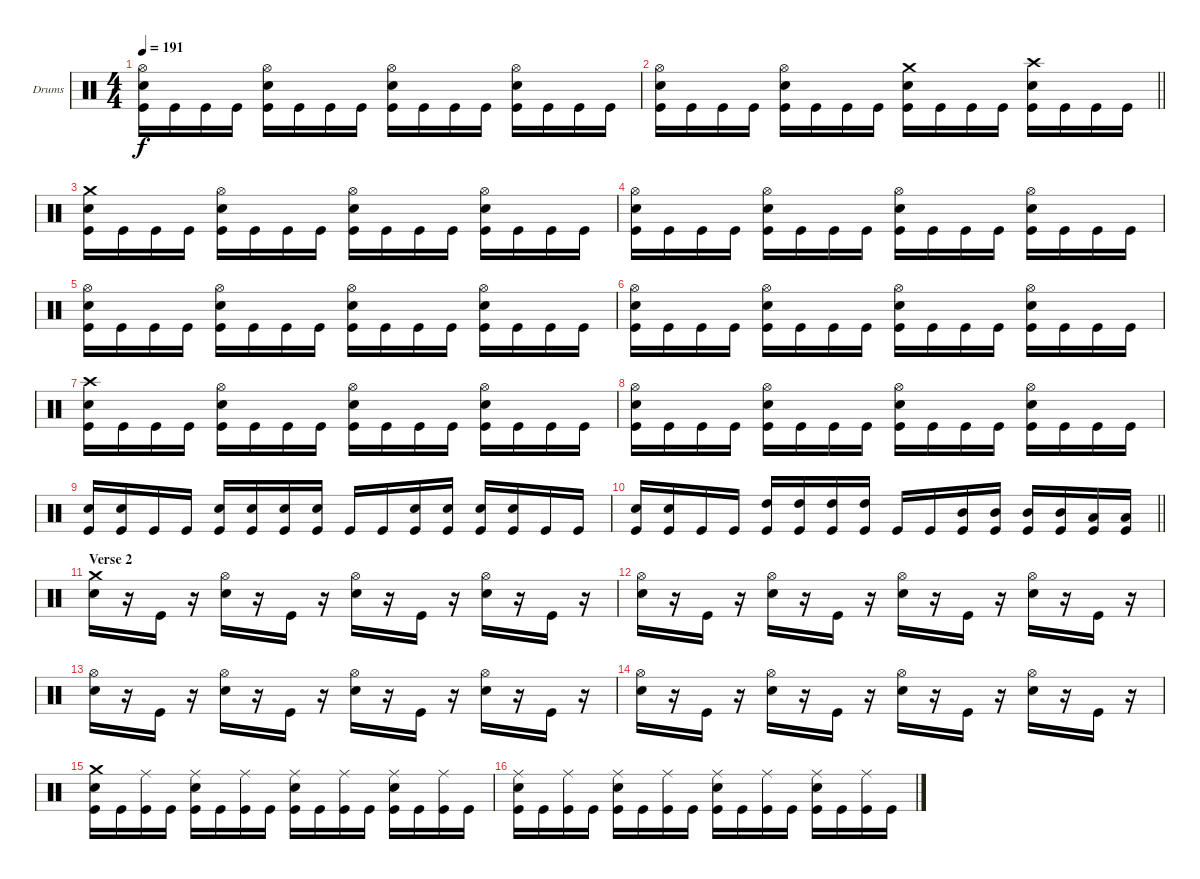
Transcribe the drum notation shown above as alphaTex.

\bracketExtendMode groupsimilarinstruments
\firstSystemTrackNameOrientation horizontal
\otherSystemsTrackNameOrientation horizontal
\track ("Drumkit" "Drums") {instrument percussion}
\staff {score}
\articulation defaults
\ts (4 4)
\tempo 191
\clef neutral
\ks c
("Hi-Hat (open)" "Snare (hit) 2" "Kick (hit)").16{dy f} "Kick (hit)".16 "Kick (hit)".16 "Kick (hit)".16 ("Hi-Hat (open)" "Snare (hit) 2" "Kick (hit)").16 "Kick (hit)".16 "Kick (hit)".16 "Kick (hit)".16 ("Hi-Hat (open)" "Snare (hit) 2" "Kick (hit)").16 "Kick (hit)".16 "Kick (hit)".16 "Kick (hit)".16 ("Hi-Hat (open)" "Snare (hit) 2" "Kick (hit)").16 "Kick (hit)".16 "Kick (hit)".16 "Kick (hit)".16 |
\barLineRight lightlight
("Hi-Hat (open)" "Snare (hit) 2" "Kick (hit)").16 "Kick (hit)".16 "Kick (hit)".16 "Kick (hit)".16 ("Hi-Hat (open)" "Snare (hit) 2" "Kick (hit)").16 "Kick (hit)".16 "Kick (hit)".16 "Kick (hit)".16 ("Crash medium (hit)" "Snare (hit) 2" "Kick (hit)").16 "Kick (hit)".16 "Kick (hit)".16 "Kick (hit)".16 ("Crash high (hit)" "Snare (hit) 2" "Kick (hit)").16 "Kick (hit)".16 "Kick (hit)".16 "Kick (hit)".16 |
\section ("" "")
("Crash medium (hit)" "Snare (hit) 2" "Kick (hit)").16 "Kick (hit)".16 "Kick (hit)".16 "Kick (hit)".16 ("Hi-Hat (open)" "Snare (hit) 2" "Kick (hit)").16 "Kick (hit)".16 "Kick (hit)".16 "Kick (hit)".16 ("Hi-Hat (open)" "Snare (hit) 2" "Kick (hit)").16 "Kick (hit)".16 "Kick (hit)".16 "Kick (hit)".16 ("Hi-Hat (open)" "Snare (hit) 2" "Kick (hit)").16 "Kick (hit)".16 "Kick (hit)".16 "Kick (hit)".16 |
("Hi-Hat (open)" "Snare (hit) 2" "Kick (hit)").16 "Kick (hit)".16 "Kick (hit)".16 "Kick (hit)".16 ("Hi-Hat (open)" "Snare (hit) 2" "Kick (hit)").16 "Kick (hit)".16 "Kick (hit)".16 "Kick (hit)".16 ("Hi-Hat (open)" "Snare (hit) 2" "Kick (hit)").16 "Kick (hit)".16 "Kick (hit)".16 "Kick (hit)".16 ("Hi-Hat (open)" "Snare (hit) 2" "Kick (hit)").16 "Kick (hit)".16 "Kick (hit)".16 "Kick (hit)".16 |
("Hi-Hat (open)" "Snare (hit) 2" "Kick (hit)").16 "Kick (hit)".16 "Kick (hit)".16 "Kick (hit)".16 ("Hi-Hat (open)" "Snare (hit) 2" "Kick (hit)").16 "Kick (hit)".16 "Kick (hit)".16 "Kick (hit)".16 ("Hi-Hat (open)" "Snare (hit) 2" "Kick (hit)").16 "Kick (hit)".16 "Kick (hit)".16 "Kick (hit)".16 ("Hi-Hat (open)" "Snare (hit) 2" "Kick (hit)").16 "Kick (hit)".16 "Kick (hit)".16 "Kick (hit)".16 |
("Hi-Hat (open)" "Snare (hit) 2" "Kick (hit)").16 "Kick (hit)".16 "Kick (hit)".16 "Kick (hit)".16 ("Hi-Hat (open)" "Snare (hit) 2" "Kick (hit)").16 "Kick (hit)".16 "Kick (hit)".16 "Kick (hit)".16 ("Hi-Hat (open)" "Snare (hit) 2" "Kick (hit)").16 "Kick (hit)".16 "Kick (hit)".16 "Kick (hit)".16 ("Hi-Hat (open)" "Snare (hit) 2" "Kick (hit)").16 "Kick (hit)".16 "Kick (hit)".16 "Kick (hit)".16 |
("Crash high (hit)" "Snare (hit) 2" "Kick (hit)").16 "Kick (hit)".16 "Kick (hit)".16 "Kick (hit)".16 ("Hi-Hat (open)" "Snare (hit) 2" "Kick (hit)").16 "Kick (hit)".16 "Kick (hit)".16 "Kick (hit)".16 ("Hi-Hat (open)" "Snare (hit) 2" "Kick (hit)").16 "Kick (hit)".16 "Kick (hit)".16 "Kick (hit)".16 ("Hi-Hat (open)" "Snare (hit) 2" "Kick (hit)").16 "Kick (hit)".16 "Kick (hit)".16 "Kick (hit)".16 |
("Hi-Hat (open)" "Snare (hit) 2" "Kick (hit)").16 "Kick (hit)".16 "Kick (hit)".16 "Kick (hit)".16 ("Hi-Hat (open)" "Snare (hit) 2" "Kick (hit)").16 "Kick (hit)".16 "Kick (hit)".16 "Kick (hit)".16 ("Hi-Hat (open)" "Snare (hit) 2" "Kick (hit)").16 "Kick (hit)".16 "Kick (hit)".16 "Kick (hit)".16 ("Hi-Hat (open)" "Snare (hit) 2" "Kick (hit)").16 "Kick (hit)".16 "Kick (hit)".16 "Kick (hit)".16 |
("Snare (hit) 2" "Kick (hit)").16 ("Snare (hit) 2" "Kick (hit)").16 "Kick (hit)".16 "Kick (hit)".16 ("Snare (hit) 2" "Kick (hit)").16 ("Snare (hit) 2" "Kick (hit)").16 ("Snare (hit) 2" "Kick (hit)").16 ("Snare (hit) 2" "Kick (hit)").16 "Kick (hit)".16 "Kick (hit)".16 ("Snare (hit) 2" "Kick (hit)").16 ("Snare (hit) 2" "Kick (hit)").16 ("Snare (hit) 2" "Kick (hit)").16 ("Snare (hit) 2" "Kick (hit)").16 "Kick (hit)".16 "Kick (hit)".16 |
\barLineRight lightlight
("Snare (hit) 2" "Kick (hit)").16 ("Snare (hit) 2" "Kick (hit)").16 "Kick (hit)".16 "Kick (hit)".16 ("High Tom (hit)" "Kick (hit)").16 ("High Tom (hit)" "Kick (hit)").16 ("High Tom (hit)" "Kick (hit)").16 ("High Tom (hit)" "Kick (hit)").16 "Kick (hit)".16 "Kick (hit)".16 ("Mid Tom (hit)" "Kick (hit)").16 ("Mid Tom (hit)" "Kick (hit)").16 ("Mid Tom (hit)" "Kick (hit)").16 ("Mid Tom (hit)" "Kick (hit)").16 ("Low Tom (hit)" "Kick (hit)").16 ("Low Tom (hit)" "Kick (hit)").16 |
\section ("" "Verse 2")
("Crash medium (hit)" "Snare (hit) 2").16 r.16 "Kick (hit)".16 r.16 ("Hi-Hat (open)" "Snare (hit) 2").16 r.16 "Kick (hit)".16 r.16 ("Hi-Hat (open)" "Snare (hit) 2").16 r.16 "Kick (hit)".16 r.16 ("Hi-Hat (open)" "Snare (hit) 2").16 r.16 "Kick (hit)".16 r.16 |
("Hi-Hat (open)" "Snare (hit) 2").16 r.16 "Kick (hit)".16 r.16 ("Hi-Hat (open)" "Snare (hit) 2").16 r.16 "Kick (hit)".16 r.16 ("Hi-Hat (open)" "Snare (hit) 2").16 r.16 "Kick (hit)".16 r.16 ("Hi-Hat (open)" "Snare (hit) 2").16 r.16 "Kick (hit)".16 r.16 |
("Hi-Hat (open)" "Snare (hit) 2").16 r.16 "Kick (hit)".16 r.16 ("Hi-Hat (open)" "Snare (hit) 2").16 r.16 "Kick (hit)".16 r.16 ("Hi-Hat (open)" "Snare (hit) 2").16 r.16 "Kick (hit)".16 r.16 ("Hi-Hat (open)" "Snare (hit) 2").16 r.16 "Kick (hit)".16 r.16 |
("Hi-Hat (open)" "Snare (hit) 2").16 r.16 "Kick (hit)".16 r.16 ("Hi-Hat (open)" "Snare (hit) 2").16 r.16 "Kick (hit)".16 r.16 ("Hi-Hat (open)" "Snare (hit) 2").16 r.16 "Kick (hit)".16 r.16 ("Hi-Hat (open)" "Snare (hit) 2").16 r.16 "Kick (hit)".16 r.16 |
("Crash medium (hit)" "Snare (hit) 2" "Kick (hit)").16 "Kick (hit)".16 ("Ride (middle)" "Kick (hit)").16 "Kick (hit)".16 ("Ride (middle)" "Snare (hit) 2" "Kick (hit)").16 "Kick (hit)".16 ("Ride (middle)" "Kick (hit)").16 "Kick (hit)".16 ("Ride (middle)" "Snare (hit) 2" "Kick (hit)").16 "Kick (hit)".16 ("Ride (middle)" "Kick (hit)").16 "Kick (hit)".16 ("Ride (middle)" "Snare (hit) 2" "Kick (hit)").16 "Kick (hit)".16 ("Ride (middle)" "Kick (hit)").16 "Kick (hit)".16 |
("Ride (middle)" "Snare (hit) 2" "Kick (hit)").16 "Kick (hit)".16 ("Ride (middle)" "Kick (hit)").16 "Kick (hit)".16 ("Ride (middle)" "Snare (hit) 2" "Kick (hit)").16 "Kick (hit)".16 ("Ride (middle)" "Kick (hit)").16 "Kick (hit)".16 ("Ride (middle)" "Snare (hit) 2" "Kick (hit)").16 "Kick (hit)".16 ("Ride (middle)" "Kick (hit)").16 "Kick (hit)".16 ("Ride (middle)" "Snare (hit) 2" "Kick (hit)").16 "Kick (hit)".16 ("Ride (middle)" "Kick (hit)").16 "Kick (hit)".16
